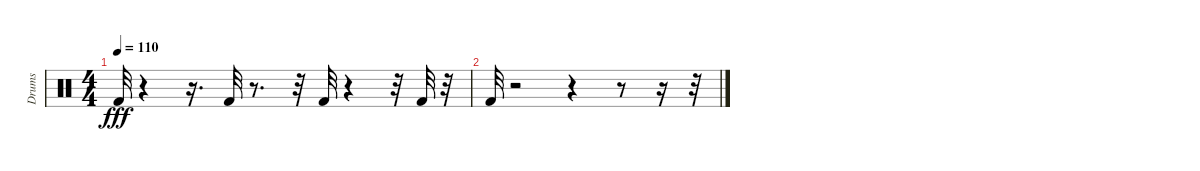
\track ("Drums" "Drums") {instrument percussion}
\staff {score}
\articulation defaults
\ts (4 4)
\tempo 110
\clef neutral
\ks c "Kick (hit) 2".32{dy fff}
r.4 r.16{d} "Kick (hit) 2".32 r.8{d} r.32 "Kick (hit) 2".32 r.4 r.32 "Kick (hit) 2".32 r.32 |
"Kick (hit) 2".32 r.2 r.4 r.8 r.16 r.32
